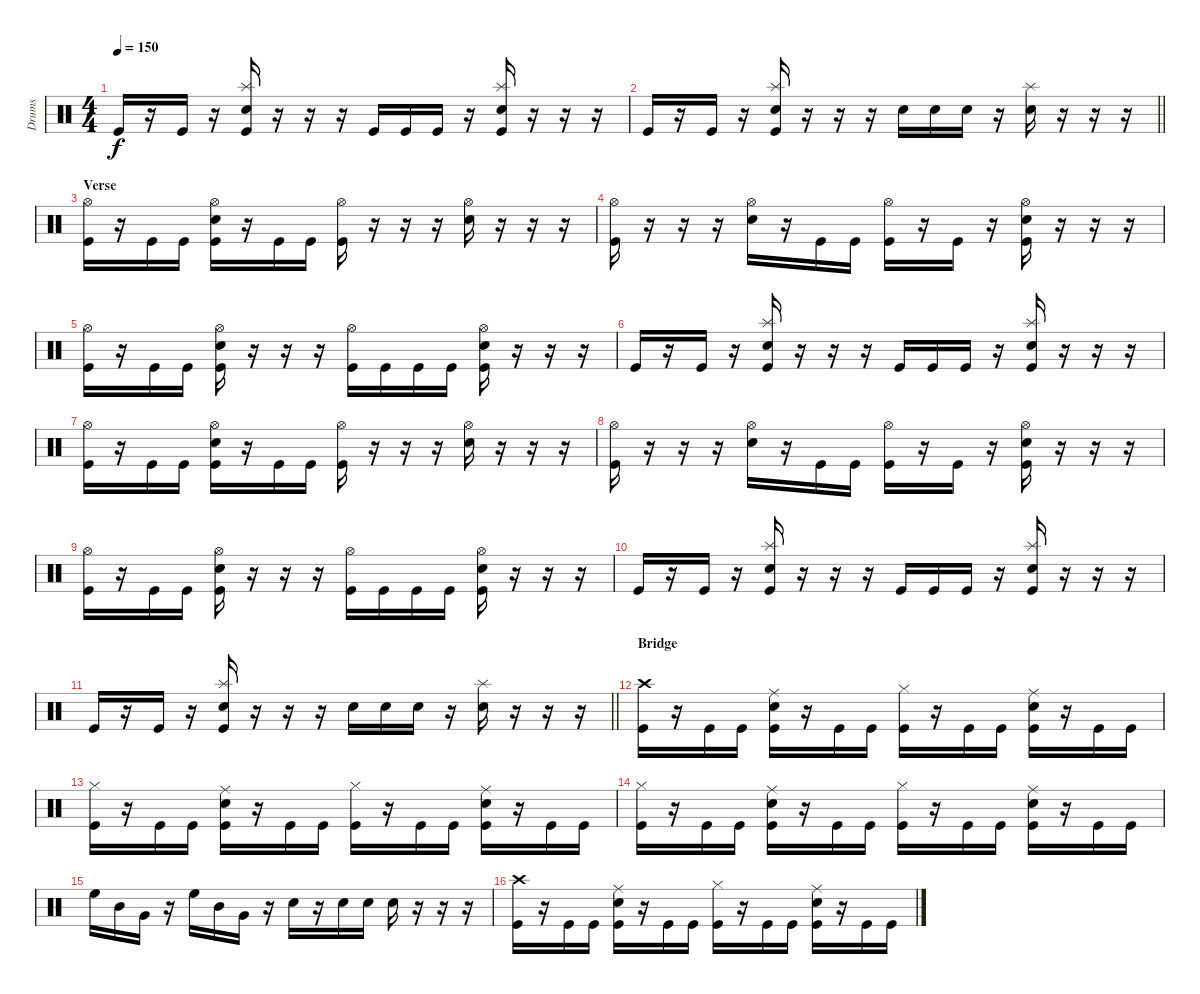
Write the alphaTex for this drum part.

\track ("Drums" "Drums") {instrument percussion}
\staff
\articulation defaults
\ts (4 4)
\tempo 150
\clef neutral
\ks c "Kick (hit)".16{dy f}
r.16 "Kick (hit)".16 r.16 ("Splash (hit)" "Snare (hit) 2" "Kick (hit)").16 r.16 r.16 r.16 "Kick (hit)".16 "Kick (hit)".16 "Kick (hit)".16 r.16 ("Splash (hit)" "Snare (hit) 2" "Kick (hit)").16 r.16 r.16 r.16 |
\barLineRight lightlight "Kick (hit)".16
r.16 "Kick (hit)".16 r.16 ("Splash (hit)" "Snare (hit) 2" "Kick (hit)").16 r.16 r.16 r.16 "Snare (hit) 2".16 "Snare (hit) 2".16 "Snare (hit) 2".16 r.16 ("Splash (hit)" "Snare (hit) 2").16 r.16 r.16 r.16 |
\section ("" "Verse")
("Hi-Hat (open)" "Kick (hit)").16 r.16 "Kick (hit)".16 "Kick (hit)".16 ("Hi-Hat (open)" "Snare (hit) 2" "Kick (hit)").16 r.16 "Kick (hit)".16 "Kick (hit)".16 ("Hi-Hat (open)" "Kick (hit)").16 r.16 r.16 r.16 ("Hi-Hat (open)" "Snare (hit) 2").16 r.16 r.16 r.16 |
("Hi-Hat (open)" "Kick (hit)").16 r.16 r.16 r.16 ("Hi-Hat (open)" "Snare (hit) 2").16 r.16 "Kick (hit)".16 "Kick (hit)".16 ("Hi-Hat (open)" "Kick (hit)").16 r.16 "Kick (hit)".16 r.16 ("Hi-Hat (open)" "Snare (hit) 2" "Kick (hit)").16 r.16 r.16 r.16 |
("Hi-Hat (open)" "Kick (hit)").16 r.16 "Kick (hit)".16 "Kick (hit)".16 ("Hi-Hat (open)" "Snare (hit) 2" "Kick (hit)").16 r.16 r.16 r.16 ("Hi-Hat (open)" "Kick (hit)").16 "Kick (hit)".16 "Kick (hit)".16 "Kick (hit)".16 ("Hi-Hat (open)" "Snare (hit) 2" "Kick (hit)").16 r.16 r.16 r.16 |
"Kick (hit)".16 r.16 "Kick (hit)".16 r.16 ("Splash (hit)" "Snare (hit) 2" "Kick (hit)").16 r.16 r.16 r.16 "Kick (hit)".16 "Kick (hit)".16 "Kick (hit)".16 r.16 ("Splash (hit)" "Snare (hit) 2" "Kick (hit)").16 r.16 r.16 r.16 |
("Hi-Hat (open)" "Kick (hit)").16 r.16 "Kick (hit)".16 "Kick (hit)".16 ("Hi-Hat (open)" "Snare (hit) 2" "Kick (hit)").16 r.16 "Kick (hit)".16 "Kick (hit)".16 ("Hi-Hat (open)" "Kick (hit)").16 r.16 r.16 r.16 ("Hi-Hat (open)" "Snare (hit) 2").16 r.16 r.16 r.16 |
("Hi-Hat (open)" "Kick (hit)").16 r.16 r.16 r.16 ("Hi-Hat (open)" "Snare (hit) 2").16 r.16 "Kick (hit)".16 "Kick (hit)".16 ("Hi-Hat (open)" "Kick (hit)").16 r.16 "Kick (hit)".16 r.16 ("Hi-Hat (open)" "Snare (hit) 2" "Kick (hit)").16 r.16 r.16 r.16 |
("Hi-Hat (open)" "Kick (hit)").16 r.16 "Kick (hit)".16 "Kick (hit)".16 ("Hi-Hat (open)" "Snare (hit) 2" "Kick (hit)").16 r.16 r.16 r.16 ("Hi-Hat (open)" "Kick (hit)").16 "Kick (hit)".16 "Kick (hit)".16 "Kick (hit)".16 ("Hi-Hat (open)" "Snare (hit) 2" "Kick (hit)").16 r.16 r.16 r.16 |
"Kick (hit)".16 r.16 "Kick (hit)".16 r.16 ("Splash (hit)" "Snare (hit) 2" "Kick (hit)").16 r.16 r.16 r.16 "Kick (hit)".16 "Kick (hit)".16 "Kick (hit)".16 r.16 ("Splash (hit)" "Snare (hit) 2" "Kick (hit)").16 r.16 r.16 r.16 |
\barLineRight lightlight "Kick (hit)".16
r.16 "Kick (hit)".16 r.16 ("Splash (hit)" "Snare (hit) 2" "Kick (hit)").16 r.16 r.16 r.16 "Snare (hit) 2".16 "Snare (hit) 2".16 "Snare (hit) 2".16 r.16 ("Splash (hit)" "Snare (hit) 2").16 r.16 r.16 r.16 |
\section ("" "Bridge")
("Crash high (hit)" "Kick (hit)").16 r.16 "Kick (hit)".16 "Kick (hit)".16 ("Ride (middle)" "Snare (hit) 2" "Kick (hit)").16 r.16 "Kick (hit)".16 "Kick (hit)".16 ("Hi-Hat (closed)" "Kick (hit)").16 r.16 "Kick (hit)".16 "Kick (hit)".16 ("Ride (middle)" "Snare (hit) 2" "Kick (hit)").16 r.16 "Kick (hit)".16 "Kick (hit)".16 |
("Hi-Hat (closed)" "Kick (hit)").16 r.16 "Kick (hit)".16 "Kick (hit)".16 ("Ride (middle)" "Snare (hit) 2" "Kick (hit)").16 r.16 "Kick (hit)".16 "Kick (hit)".16 ("Hi-Hat (closed)" "Kick (hit)").16 r.16 "Kick (hit)".16 "Kick (hit)".16 ("Ride (middle)" "Snare (hit) 2" "Kick (hit)").16 r.16 "Kick (hit)".16 "Kick (hit)".16 |
("Hi-Hat (closed)" "Kick (hit)").16 r.16 "Kick (hit)".16 "Kick (hit)".16 ("Ride (middle)" "Snare (hit) 2" "Kick (hit)").16 r.16 "Kick (hit)".16 "Kick (hit)".16 ("Hi-Hat (closed)" "Kick (hit)").16 r.16 "Kick (hit)".16 "Kick (hit)".16 ("Ride (middle)" "Snare (hit) 2" "Kick (hit)").16 r.16 "Kick (hit)".16 "Kick (hit)".16 |
"High Floor Tom (hit)".16 "Mid Tom (hit)".16 "Very Low Tom (hit)".16 r.16 "High Floor Tom (hit)".16 "Mid Tom (hit)".16 "Very Low Tom (hit)".16 r.16 "Snare (hit) 2".16 r.16 "Snare (hit) 2".16 "Snare (hit) 2".16 "Snare (hit) 2".16 r.16 r.16 r.16 |
("Crash high (hit)" "Kick (hit)").16 r.16 "Kick (hit)".16 "Kick (hit)".16 ("Ride (middle)" "Snare (hit) 2" "Kick (hit)").16 r.16 "Kick (hit)".16 "Kick (hit)".16 ("Hi-Hat (closed)" "Kick (hit)").16 r.16 "Kick (hit)".16 "Kick (hit)".16 ("Ride (middle)" "Snare (hit) 2" "Kick (hit)").16 r.16 "Kick (hit)".16 "Kick (hit)".16
